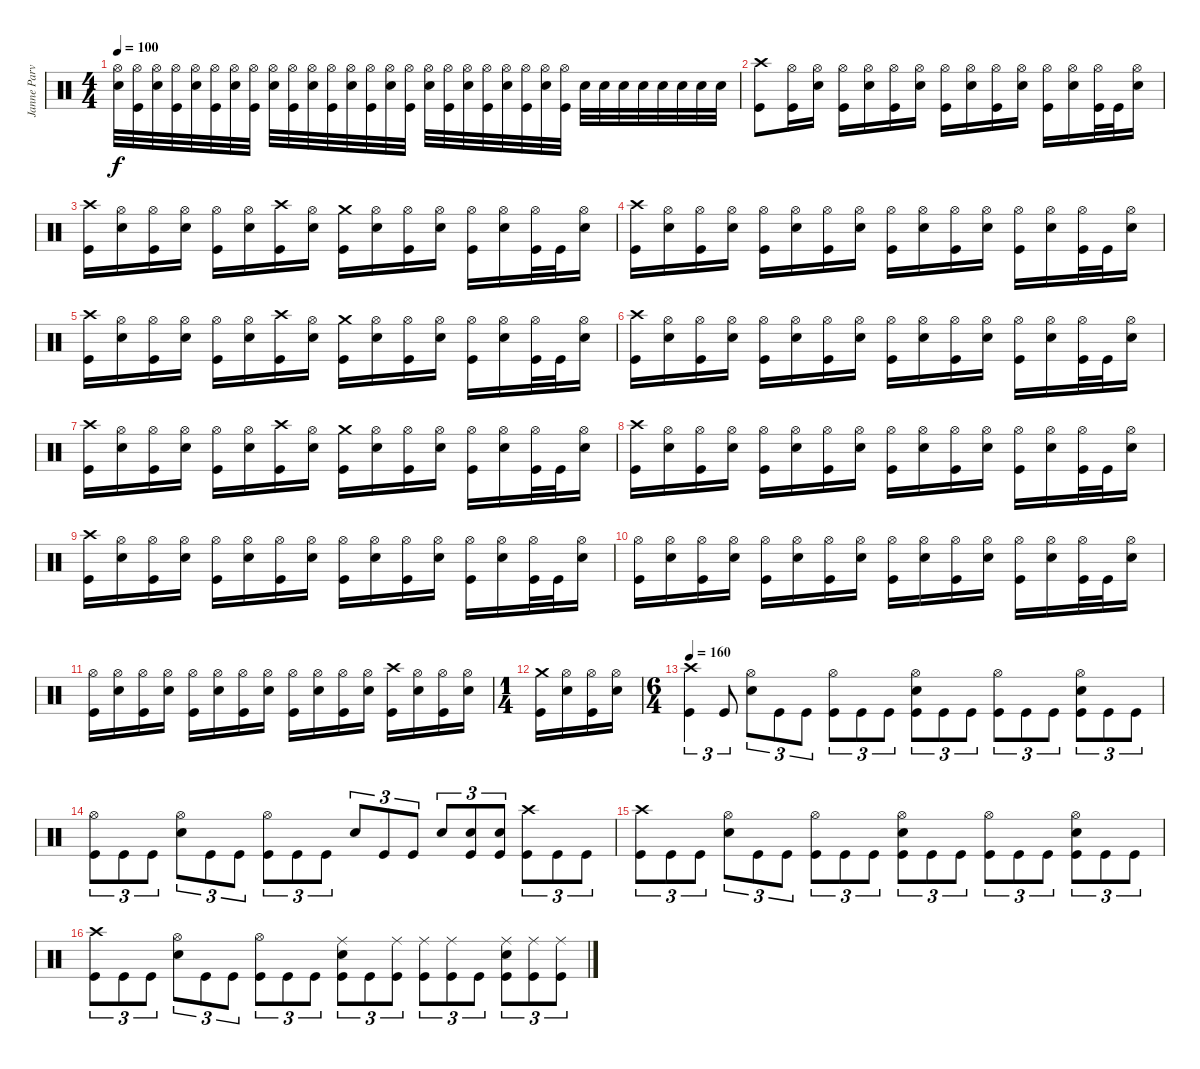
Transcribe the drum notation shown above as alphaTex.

\track ("Janne Parviainen" "Janne Parv") {instrument percussion}
\staff {score}
\articulation defaults
\ts (4 4)
\tempo 100
\clef neutral
\ks c
("Hi-Hat (open)" "Electric Snare (hit)").32{dy f} ("Hi-Hat (open)" "Kick (hit)").32 ("Hi-Hat (open)" "Electric Snare (hit)").32 ("Hi-Hat (open)" "Kick (hit)").32 ("Hi-Hat (open)" "Electric Snare (hit)").32 ("Hi-Hat (open)" "Kick (hit)").32 ("Hi-Hat (open)" "Electric Snare (hit)").32 ("Hi-Hat (open)" "Kick (hit)").32 ("Hi-Hat (open)" "Electric Snare (hit)").32 ("Hi-Hat (open)" "Kick (hit)").32 ("Hi-Hat (open)" "Electric Snare (hit)").32 ("Hi-Hat (open)" "Kick (hit)").32 ("Hi-Hat (open)" "Electric Snare (hit)").32 ("Hi-Hat (open)" "Kick (hit)").32 ("Hi-Hat (open)" "Electric Snare (hit)").32 ("Hi-Hat (open)" "Kick (hit)").32 ("Hi-Hat (open)" "Electric Snare (hit)").32 ("Hi-Hat (open)" "Kick (hit)").32 ("Hi-Hat (open)" "Electric Snare (hit)").32 ("Hi-Hat (open)" "Kick (hit)").32 ("Hi-Hat (open)" "Electric Snare (hit)").32 ("Hi-Hat (open)" "Kick (hit)").32 ("Hi-Hat (open)" "Electric Snare (hit)").32 ("Hi-Hat (open)" "Kick (hit)").32 "Electric Snare (hit)".32 "Electric Snare (hit)".32 "Electric Snare (hit)".32 "Electric Snare (hit)".32 "Electric Snare (hit)".32 "Electric Snare (hit)".32 "Electric Snare (hit)".32 "Electric Snare (hit)".32 |
("Crash high (hit)" "Kick (hit)").8 ("Hi-Hat (open)" "Kick (hit)").16 ("Hi-Hat (open)" "Electric Snare (hit)").16 ("Hi-Hat (open)" "Kick (hit)").16 ("Hi-Hat (open)" "Electric Snare (hit)").16 ("Hi-Hat (open)" "Kick (hit)").16 ("Hi-Hat (open)" "Electric Snare (hit)").16 ("Hi-Hat (open)" "Kick (hit)").16 ("Hi-Hat (open)" "Electric Snare (hit)").16 ("Hi-Hat (open)" "Kick (hit)").16 ("Hi-Hat (open)" "Electric Snare (hit)").16 ("Hi-Hat (open)" "Kick (hit)").16 ("Hi-Hat (open)" "Electric Snare (hit)").16 ("Hi-Hat (open)" "Kick (hit)").32 "Kick (hit)".32 ("Hi-Hat (open)" "Electric Snare (hit)").16 |
("Crash high (hit)" "Kick (hit)").16 ("Hi-Hat (open)" "Electric Snare (hit)").16 ("Hi-Hat (open)" "Kick (hit)").16 ("Hi-Hat (open)" "Electric Snare (hit)").16 ("Hi-Hat (open)" "Kick (hit)").16 ("Hi-Hat (open)" "Electric Snare (hit)").16 ("Crash high (hit)" "Kick (hit)").16 ("Hi-Hat (open)" "Electric Snare (hit)").16 ("Crash medium (hit)" "Kick (hit)").16 ("Hi-Hat (open)" "Electric Snare (hit)").16 ("Hi-Hat (open)" "Kick (hit)").16 ("Hi-Hat (open)" "Electric Snare (hit)").16 ("Hi-Hat (open)" "Kick (hit)").16 ("Hi-Hat (open)" "Electric Snare (hit)").16 ("Hi-Hat (open)" "Kick (hit)").32 "Kick (hit)".32 ("Hi-Hat (open)" "Electric Snare (hit)").16 |
("Crash high (hit)" "Kick (hit)").16 ("Hi-Hat (open)" "Electric Snare (hit)").16 ("Hi-Hat (open)" "Kick (hit)").16 ("Hi-Hat (open)" "Electric Snare (hit)").16 ("Hi-Hat (open)" "Kick (hit)").16 ("Hi-Hat (open)" "Electric Snare (hit)").16 ("Hi-Hat (open)" "Kick (hit)").16 ("Hi-Hat (open)" "Electric Snare (hit)").16 ("Hi-Hat (open)" "Kick (hit)").16 ("Hi-Hat (open)" "Electric Snare (hit)").16 ("Hi-Hat (open)" "Kick (hit)").16 ("Hi-Hat (open)" "Electric Snare (hit)").16 ("Hi-Hat (open)" "Kick (hit)").16 ("Hi-Hat (open)" "Electric Snare (hit)").16 ("Hi-Hat (open)" "Kick (hit)").32 "Kick (hit)".32 ("Hi-Hat (open)" "Electric Snare (hit)").16 |
("Crash high (hit)" "Kick (hit)").16 ("Hi-Hat (open)" "Electric Snare (hit)").16 ("Hi-Hat (open)" "Kick (hit)").16 ("Hi-Hat (open)" "Electric Snare (hit)").16 ("Hi-Hat (open)" "Kick (hit)").16 ("Hi-Hat (open)" "Electric Snare (hit)").16 ("Crash high (hit)" "Kick (hit)").16 ("Hi-Hat (open)" "Electric Snare (hit)").16 ("Crash medium (hit)" "Kick (hit)").16 ("Hi-Hat (open)" "Electric Snare (hit)").16 ("Hi-Hat (open)" "Kick (hit)").16 ("Hi-Hat (open)" "Electric Snare (hit)").16 ("Hi-Hat (open)" "Kick (hit)").16 ("Hi-Hat (open)" "Electric Snare (hit)").16 ("Hi-Hat (open)" "Kick (hit)").32 "Kick (hit)".32 ("Hi-Hat (open)" "Electric Snare (hit)").16 |
("Crash high (hit)" "Kick (hit)").16 ("Hi-Hat (open)" "Electric Snare (hit)").16 ("Hi-Hat (open)" "Kick (hit)").16 ("Hi-Hat (open)" "Electric Snare (hit)").16 ("Hi-Hat (open)" "Kick (hit)").16 ("Hi-Hat (open)" "Electric Snare (hit)").16 ("Hi-Hat (open)" "Kick (hit)").16 ("Hi-Hat (open)" "Electric Snare (hit)").16 ("Hi-Hat (open)" "Kick (hit)").16 ("Hi-Hat (open)" "Electric Snare (hit)").16 ("Hi-Hat (open)" "Kick (hit)").16 ("Hi-Hat (open)" "Electric Snare (hit)").16 ("Hi-Hat (open)" "Kick (hit)").16 ("Hi-Hat (open)" "Electric Snare (hit)").16 ("Hi-Hat (open)" "Kick (hit)").32 "Kick (hit)".32 ("Hi-Hat (open)" "Electric Snare (hit)").16 |
("Crash high (hit)" "Kick (hit)").16 ("Hi-Hat (open)" "Electric Snare (hit)").16 ("Hi-Hat (open)" "Kick (hit)").16 ("Hi-Hat (open)" "Electric Snare (hit)").16 ("Hi-Hat (open)" "Kick (hit)").16 ("Hi-Hat (open)" "Electric Snare (hit)").16 ("Crash high (hit)" "Kick (hit)").16 ("Hi-Hat (open)" "Electric Snare (hit)").16 ("Crash medium (hit)" "Kick (hit)").16 ("Hi-Hat (open)" "Electric Snare (hit)").16 ("Hi-Hat (open)" "Kick (hit)").16 ("Hi-Hat (open)" "Electric Snare (hit)").16 ("Hi-Hat (open)" "Kick (hit)").16 ("Hi-Hat (open)" "Electric Snare (hit)").16 ("Hi-Hat (open)" "Kick (hit)").32 "Kick (hit)".32 ("Hi-Hat (open)" "Electric Snare (hit)").16 |
("Crash high (hit)" "Kick (hit)").16 ("Hi-Hat (open)" "Electric Snare (hit)").16 ("Hi-Hat (open)" "Kick (hit)").16 ("Hi-Hat (open)" "Electric Snare (hit)").16 ("Hi-Hat (open)" "Kick (hit)").16 ("Hi-Hat (open)" "Electric Snare (hit)").16 ("Hi-Hat (open)" "Kick (hit)").16 ("Hi-Hat (open)" "Electric Snare (hit)").16 ("Hi-Hat (open)" "Kick (hit)").16 ("Hi-Hat (open)" "Electric Snare (hit)").16 ("Hi-Hat (open)" "Kick (hit)").16 ("Hi-Hat (open)" "Electric Snare (hit)").16 ("Hi-Hat (open)" "Kick (hit)").16 ("Hi-Hat (open)" "Electric Snare (hit)").16 ("Hi-Hat (open)" "Kick (hit)").32 "Kick (hit)".32 ("Hi-Hat (open)" "Electric Snare (hit)").16 |
("Crash high (hit)" "Kick (hit)").16 ("Hi-Hat (open)" "Electric Snare (hit)").16 ("Hi-Hat (open)" "Kick (hit)").16 ("Hi-Hat (open)" "Electric Snare (hit)").16 ("Hi-Hat (open)" "Kick (hit)").16 ("Hi-Hat (open)" "Electric Snare (hit)").16 ("Hi-Hat (open)" "Kick (hit)").16 ("Hi-Hat (open)" "Electric Snare (hit)").16 ("Hi-Hat (open)" "Kick (hit)").16 ("Hi-Hat (open)" "Electric Snare (hit)").16 ("Hi-Hat (open)" "Kick (hit)").16 ("Hi-Hat (open)" "Electric Snare (hit)").16 ("Hi-Hat (open)" "Kick (hit)").16 ("Hi-Hat (open)" "Electric Snare (hit)").16 ("Hi-Hat (open)" "Kick (hit)").32 "Kick (hit)".32 ("Hi-Hat (open)" "Electric Snare (hit)").16 |
("Hi-Hat (open)" "Kick (hit)").16 ("Hi-Hat (open)" "Electric Snare (hit)").16 ("Hi-Hat (open)" "Kick (hit)").16 ("Hi-Hat (open)" "Electric Snare (hit)").16 ("Hi-Hat (open)" "Kick (hit)").16 ("Hi-Hat (open)" "Electric Snare (hit)").16 ("Hi-Hat (open)" "Kick (hit)").16 ("Hi-Hat (open)" "Electric Snare (hit)").16 ("Hi-Hat (open)" "Kick (hit)").16 ("Hi-Hat (open)" "Electric Snare (hit)").16 ("Hi-Hat (open)" "Kick (hit)").16 ("Hi-Hat (open)" "Electric Snare (hit)").16 ("Hi-Hat (open)" "Kick (hit)").16 ("Hi-Hat (open)" "Electric Snare (hit)").16 ("Hi-Hat (open)" "Kick (hit)").32 "Kick (hit)".32 ("Hi-Hat (open)" "Electric Snare (hit)").16 |
("Hi-Hat (open)" "Kick (hit)").16 ("Hi-Hat (open)" "Electric Snare (hit)").16 ("Hi-Hat (open)" "Kick (hit)").16 ("Hi-Hat (open)" "Electric Snare (hit)").16 ("Hi-Hat (open)" "Kick (hit)").16 ("Hi-Hat (open)" "Electric Snare (hit)").16 ("Hi-Hat (open)" "Kick (hit)").16 ("Hi-Hat (open)" "Electric Snare (hit)").16 ("Hi-Hat (open)" "Kick (hit)").16 ("Hi-Hat (open)" "Electric Snare (hit)").16 ("Hi-Hat (open)" "Kick (hit)").16 ("Hi-Hat (open)" "Electric Snare (hit)").16 ("Crash high (hit)" "Kick (hit)").16 ("Hi-Hat (open)" "Electric Snare (hit)").16 ("Hi-Hat (open)" "Kick (hit)").16 ("Hi-Hat (open)" "Electric Snare (hit)").16 |
\ts (1 4)
("Crash medium (hit)" "Kick (hit)").16 ("Hi-Hat (open)" "Electric Snare (hit)").16 ("Hi-Hat (open)" "Kick (hit)").16 ("Hi-Hat (open)" "Electric Snare (hit)").16 |
\ts (6 4)
\tempo 180
\tempo 160
("Crash high (hit)" "Kick (hit)").4{tu (3 2)} "Kick (hit)".8{tu (3 2)} ("Hi-Hat (open)" "Electric Snare (hit)").8{tu (3 2)} "Kick (hit)".8{tu (3 2)} "Kick (hit)".8{tu (3 2)} ("Hi-Hat (open)" "Kick (hit)").8{tu (3 2)} "Kick (hit)".8{tu (3 2)} "Kick (hit)".8{tu (3 2)} ("Hi-Hat (open)" "Electric Snare (hit)" "Kick (hit)").8{tu (3 2)} "Kick (hit)".8{tu (3 2)} "Kick (hit)".8{tu (3 2)} ("Hi-Hat (open)" "Kick (hit)").8{tu (3 2)} "Kick (hit)".8{tu (3 2)} "Kick (hit)".8{tu (3 2)} ("Hi-Hat (open)" "Electric Snare (hit)" "Kick (hit)").8{tu (3 2)} "Kick (hit)".8{tu (3 2)} "Kick (hit)".8{tu (3 2)} |
("Hi-Hat (open)" "Kick (hit)").8{tu (3 2)} "Kick (hit)".8{tu (3 2)} "Kick (hit)".8{tu (3 2)} ("Hi-Hat (open)" "Electric Snare (hit)").8{tu (3 2)} "Kick (hit)".8{tu (3 2)} "Kick (hit)".8{tu (3 2)} ("Hi-Hat (open)" "Kick (hit)").8{tu (3 2)} "Kick (hit)".8{tu (3 2)} "Kick (hit)".8{tu (3 2)} "Electric Snare (hit)".8{tu (3 2)} "Kick (hit)".8{tu (3 2)} "Kick (hit)".8{tu (3 2)} "Electric Snare (hit)".8{tu (3 2)} ("Electric Snare (hit)" "Kick (hit)").8{tu (3 2)} ("Electric Snare (hit)" "Kick (hit)").8{tu (3 2)} ("Crash high (hit)" "Kick (hit)").8{tu (3 2)} "Kick (hit)".8{tu (3 2)} "Kick (hit)".8{tu (3 2)} |
("Crash high (hit)" "Kick (hit)").8{tu (3 2)} "Kick (hit)".8{tu (3 2)} "Kick (hit)".8{tu (3 2)} ("Hi-Hat (open)" "Electric Snare (hit)").8{tu (3 2)} "Kick (hit)".8{tu (3 2)} "Kick (hit)".8{tu (3 2)} ("Hi-Hat (open)" "Kick (hit)").8{tu (3 2)} "Kick (hit)".8{tu (3 2)} "Kick (hit)".8{tu (3 2)} ("Hi-Hat (open)" "Electric Snare (hit)" "Kick (hit)").8{tu (3 2)} "Kick (hit)".8{tu (3 2)} "Kick (hit)".8{tu (3 2)} ("Hi-Hat (open)" "Kick (hit)").8{tu (3 2)} "Kick (hit)".8{tu (3 2)} "Kick (hit)".8{tu (3 2)} ("Hi-Hat (open)" "Electric Snare (hit)" "Kick (hit)").8{tu (3 2)} "Kick (hit)".8{tu (3 2)} "Kick (hit)".8{tu (3 2)} |
("Crash high (hit)" "Kick (hit)").8{tu (3 2)} "Kick (hit)".8{tu (3 2)} "Kick (hit)".8{tu (3 2)} ("Hi-Hat (open)" "Electric Snare (hit)").8{tu (3 2)} "Kick (hit)".8{tu (3 2)} "Kick (hit)".8{tu (3 2)} ("Hi-Hat (open)" "Kick (hit)").8{tu (3 2)} "Kick (hit)".8{tu (3 2)} "Kick (hit)".8{tu (3 2)} ("Ride (middle)" "Electric Snare (hit)" "Kick (hit)").8{tu (3 2)} "Kick (hit)".8{tu (3 2)} ("Ride (middle)" "Kick (hit)").8{tu (3 2)} ("Ride (middle)" "Kick (hit)").8{tu (3 2)} ("Ride (middle)" "Kick (hit)").8{tu (3 2)} "Kick (hit)".8{tu (3 2)} ("Ride (middle)" "Electric Snare (hit)" "Kick (hit)").8{tu (3 2)} ("Ride (middle)" "Kick (hit)").8{tu (3 2)} ("Ride (middle)" "Kick (hit)").8{tu (3 2)}
